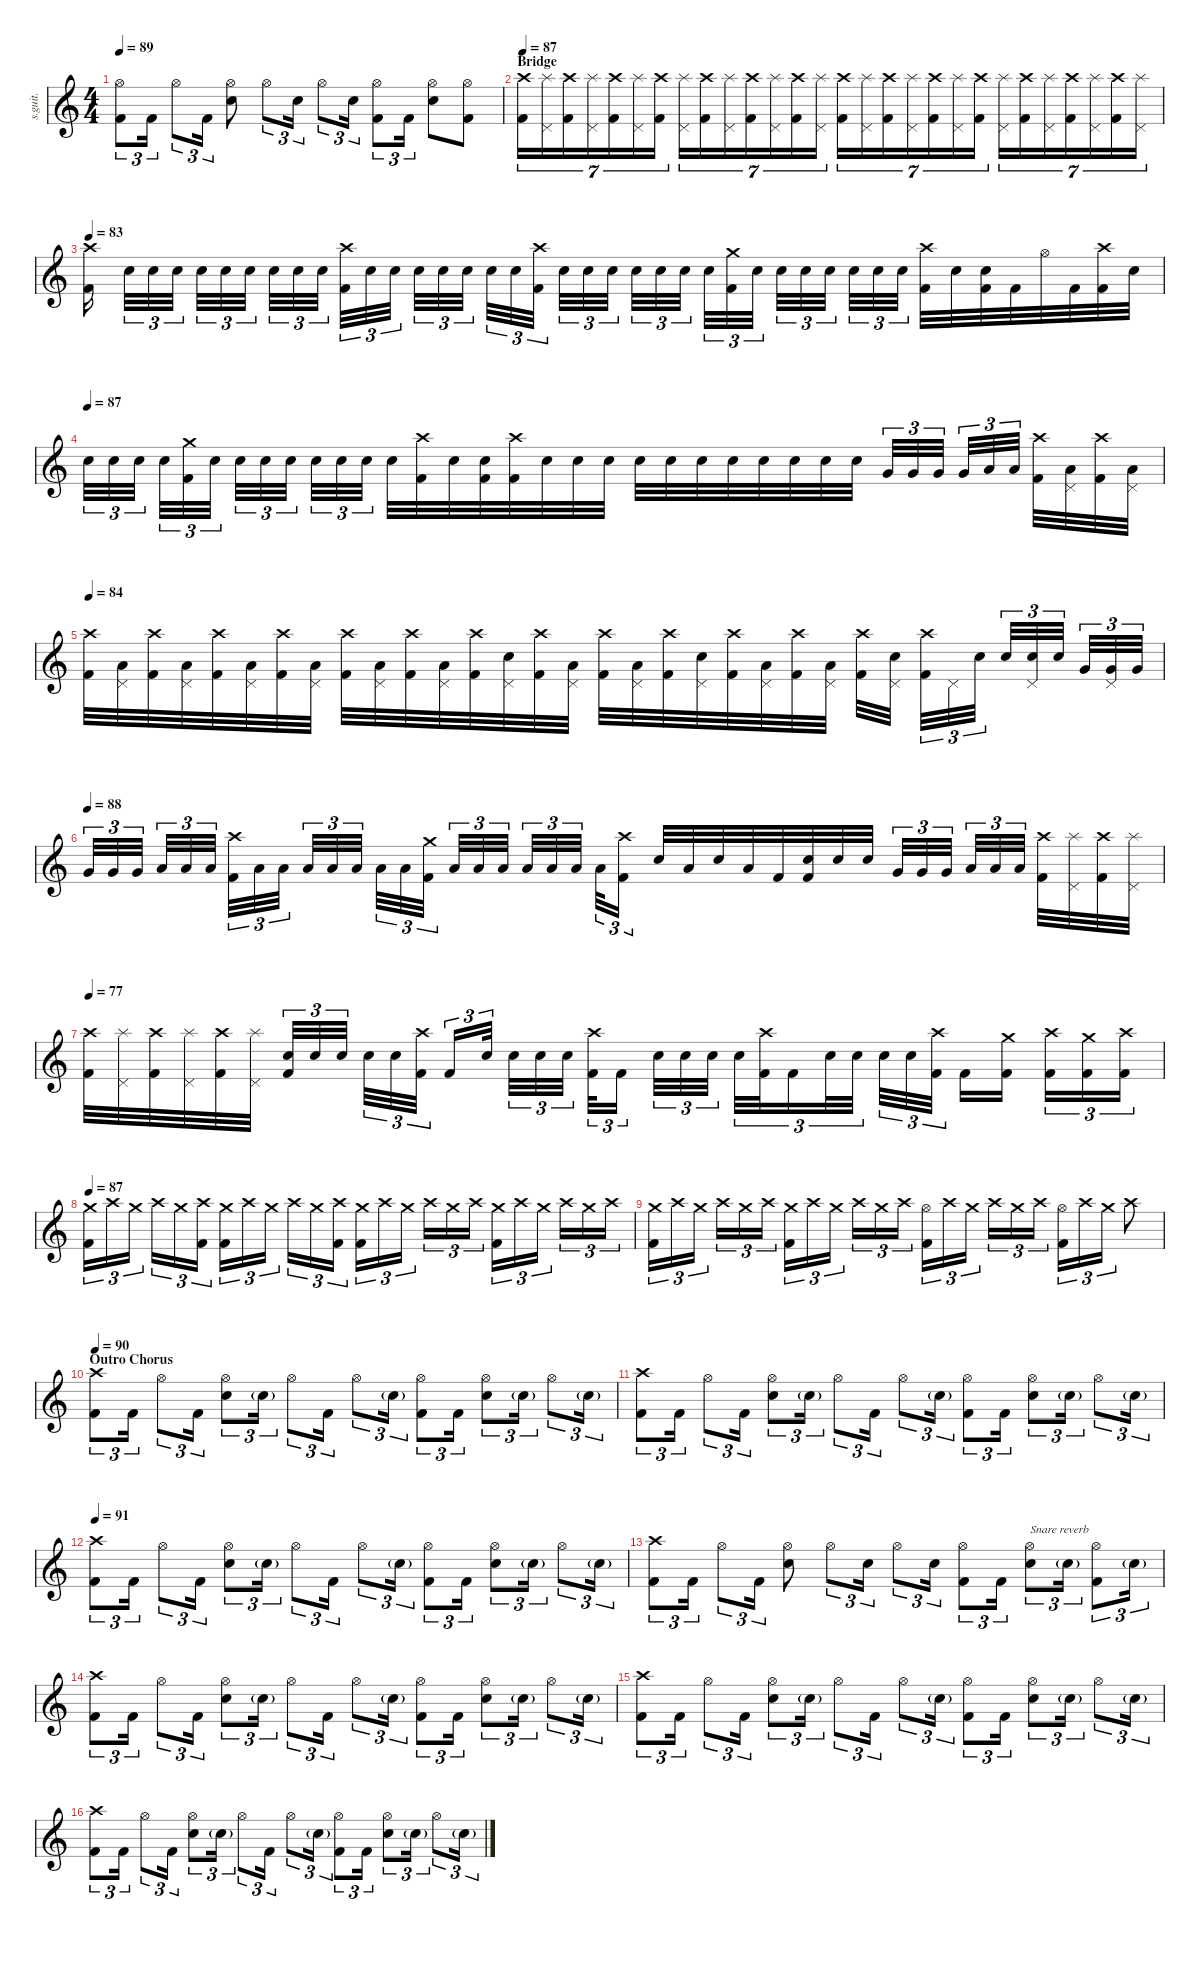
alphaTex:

\defaultSystemsLayout 4
\hideDynamics
\bracketExtendMode nobrackets
\track ("Brad Wilk - Drums" "s.guit.") {instrument percussion}
\staff {score}
\articulation defaults
\ts (4 4)
\tempo 89
\clef g2
\ks c
("Hi-Hat (open)" "Kick (hit) 2").8{tu (3 2) lyrics (0 "") lyrics (1 "") lyrics (2 "") lyrics (3 "") lyrics (4 "") dy f} "Kick (hit) 2".16{tu (3 2) lyrics (0 "") lyrics (1 "") lyrics (2 "") lyrics (3 "") lyrics (4 "")} "Hi-Hat (open)".8{tu (3 2) lyrics (0 "") lyrics (1 "") lyrics (2 "") lyrics (3 "") lyrics (4 "")} "Kick (hit) 2".16{tu (3 2) lyrics (0 "") lyrics (1 "") lyrics (2 "") lyrics (3 "") lyrics (4 "")} ("Hi-Hat (open)" "Snare (hit) 2").8{lyrics (0 "") lyrics (1 "") lyrics (2 "") lyrics (3 "") lyrics (4 "")} "Hi-Hat (open)".8{tu (3 2) lyrics (0 "") lyrics (1 "") lyrics (2 "") lyrics (3 "") lyrics (4 "")} "Snare (hit) 2".16{tu (3 2) lyrics (0 "") lyrics (1 "") lyrics (2 "") lyrics (3 "") lyrics (4 "")} "Hi-Hat (open)".8{tu (3 2) lyrics (0 "") lyrics (1 "") lyrics (2 "") lyrics (3 "") lyrics (4 "")} "Snare (hit) 2".16{tu (3 2) lyrics (0 "") lyrics (1 "") lyrics (2 "") lyrics (3 "") lyrics (4 "") dy mf} ("Hi-Hat (open)" "Kick (hit) 2").8{tu (3 2) lyrics (0 "") lyrics (1 "") lyrics (2 "") lyrics (3 "") lyrics (4 "") dy f} "Kick (hit) 2".16{tu (3 2) lyrics (0 "") lyrics (1 "") lyrics (2 "") lyrics (3 "") lyrics (4 "")} ("Hi-Hat (open)" "Snare (hit) 2").8{lyrics (0 "") lyrics (1 "") lyrics (2 "") lyrics (3 "") lyrics (4 "")} ("Hi-Hat (open)" "Kick (hit) 2").8{lyrics (0 "") lyrics (1 "") lyrics (2 "") lyrics (3 "") lyrics (4 "")} |
\section ("" "Bridge")
\tempo 87
("Crash high (hit)" "Kick (hit) 2").16{tu (7 4) lyrics (0 "") lyrics (1 "") lyrics (2 "") lyrics (3 "") lyrics (4 "")} ("Splash (hit)" "Pedal Hi-Hat (hit)").16{tu (7 4) lyrics (0 "") lyrics (1 "") lyrics (2 "") lyrics (3 "") lyrics (4 "")} ("Crash high (hit)" "Kick (hit) 2").16{tu (7 4) lyrics (0 "") lyrics (1 "") lyrics (2 "") lyrics (3 "") lyrics (4 "")} ("Splash (hit)" "Pedal Hi-Hat (hit)").16{tu (7 4) lyrics (0 "") lyrics (1 "") lyrics (2 "") lyrics (3 "") lyrics (4 "")} ("Crash high (hit)" "Kick (hit) 2").16{tu (7 4) lyrics (0 "") lyrics (1 "") lyrics (2 "") lyrics (3 "") lyrics (4 "")} ("Splash (hit)" "Pedal Hi-Hat (hit)").16{tu (7 4) lyrics (0 "") lyrics (1 "") lyrics (2 "") lyrics (3 "") lyrics (4 "")} ("Crash high (hit)" "Kick (hit) 2").16{tu (7 4) lyrics (0 "") lyrics (1 "") lyrics (2 "") lyrics (3 "") lyrics (4 "")} ("Splash (hit)" "Pedal Hi-Hat (hit)").16{tu (7 4) lyrics (0 "") lyrics (1 "") lyrics (2 "") lyrics (3 "") lyrics (4 "")} ("Crash high (hit)" "Kick (hit) 2").16{tu (7 4) lyrics (0 "") lyrics (1 "") lyrics (2 "") lyrics (3 "") lyrics (4 "")} ("Splash (hit)" "Pedal Hi-Hat (hit)").16{tu (7 4) lyrics (0 "") lyrics (1 "") lyrics (2 "") lyrics (3 "") lyrics (4 "")} ("Crash high (hit)" "Kick (hit) 2").16{tu (7 4) lyrics (0 "") lyrics (1 "") lyrics (2 "") lyrics (3 "") lyrics (4 "")} ("Splash (hit)" "Pedal Hi-Hat (hit)").16{tu (7 4) lyrics (0 "") lyrics (1 "") lyrics (2 "") lyrics (3 "") lyrics (4 "")} ("Crash high (hit)" "Kick (hit) 2").16{tu (7 4) lyrics (0 "") lyrics (1 "") lyrics (2 "") lyrics (3 "") lyrics (4 "")} ("Splash (hit)" "Pedal Hi-Hat (hit)").16{tu (7 4) lyrics (0 "") lyrics (1 "") lyrics (2 "") lyrics (3 "") lyrics (4 "")} ("Crash high (hit)" "Kick (hit) 2").16{tu (7 4) lyrics (0 "") lyrics (1 "") lyrics (2 "") lyrics (3 "") lyrics (4 "")} ("Splash (hit)" "Pedal Hi-Hat (hit)").16{tu (7 4) lyrics (0 "") lyrics (1 "") lyrics (2 "") lyrics (3 "") lyrics (4 "")} ("Crash high (hit)" "Kick (hit) 2").16{tu (7 4) lyrics (0 "") lyrics (1 "") lyrics (2 "") lyrics (3 "") lyrics (4 "")} ("Splash (hit)" "Pedal Hi-Hat (hit)").16{tu (7 4) lyrics (0 "") lyrics (1 "") lyrics (2 "") lyrics (3 "") lyrics (4 "")} ("Crash high (hit)" "Kick (hit) 2").16{tu (7 4) lyrics (0 "") lyrics (1 "") lyrics (2 "") lyrics (3 "") lyrics (4 "")} ("Splash (hit)" "Pedal Hi-Hat (hit)").16{tu (7 4) lyrics (0 "") lyrics (1 "") lyrics (2 "") lyrics (3 "") lyrics (4 "")} ("Crash high (hit)" "Kick (hit) 2").16{tu (7 4) lyrics (0 "") lyrics (1 "") lyrics (2 "") lyrics (3 "") lyrics (4 "")} ("Splash (hit)" "Pedal Hi-Hat (hit)").16{tu (7 4) lyrics (0 "") lyrics (1 "") lyrics (2 "") lyrics (3 "") lyrics (4 "")} ("Crash high (hit)" "Kick (hit) 2").16{tu (7 4) lyrics (0 "") lyrics (1 "") lyrics (2 "") lyrics (3 "") lyrics (4 "")} ("Splash (hit)" "Pedal Hi-Hat (hit)").16{tu (7 4) lyrics (0 "") lyrics (1 "") lyrics (2 "") lyrics (3 "") lyrics (4 "")} ("Crash high (hit)" "Kick (hit) 2").16{tu (7 4) lyrics (0 "") lyrics (1 "") lyrics (2 "") lyrics (3 "") lyrics (4 "")} ("Splash (hit)" "Pedal Hi-Hat (hit)").16{tu (7 4) lyrics (0 "") lyrics (1 "") lyrics (2 "") lyrics (3 "") lyrics (4 "")} ("Crash high (hit)" "Kick (hit) 2").16{tu (7 4) lyrics (0 "") lyrics (1 "") lyrics (2 "") lyrics (3 "") lyrics (4 "")} ("Splash (hit)" "Pedal Hi-Hat (hit)").16{tu (7 4) lyrics (0 "") lyrics (1 "") lyrics (2 "") lyrics (3 "") lyrics (4 "")} |
\tempo 83
("Crash high (hit)" "Kick (hit) 2").16{lyrics (0 "") lyrics (1 "") lyrics (2 "") lyrics (3 "") lyrics (4 "")} "Snare (hit) 2".32{tu (3 2) lyrics (0 "") lyrics (1 "") lyrics (2 "") lyrics (3 "") lyrics (4 "") dy mf} "Snare (hit) 2".32{tu (3 2) lyrics (0 "") lyrics (1 "") lyrics (2 "") lyrics (3 "") lyrics (4 "") dy f} "Snare (hit) 2".32{tu (3 2) lyrics (0 "") lyrics (1 "") lyrics (2 "") lyrics (3 "") lyrics (4 "")} "Snare (hit) 2".32{tu (3 2) lyrics (0 "") lyrics (1 "") lyrics (2 "") lyrics (3 "") lyrics (4 "")} "Snare (hit) 2".32{tu (3 2) lyrics (0 "") lyrics (1 "") lyrics (2 "") lyrics (3 "") lyrics (4 "")} "Snare (hit) 2".32{tu (3 2) lyrics (0 "") lyrics (1 "") lyrics (2 "") lyrics (3 "") lyrics (4 "")} "Snare (hit) 2".32{tu (3 2) lyrics (0 "") lyrics (1 "") lyrics (2 "") lyrics (3 "") lyrics (4 "")} "Snare (hit) 2".32{tu (3 2) lyrics (0 "") lyrics (1 "") lyrics (2 "") lyrics (3 "") lyrics (4 "")} "Snare (hit) 2".32{tu (3 2) lyrics (0 "") lyrics (1 "") lyrics (2 "") lyrics (3 "") lyrics (4 "") dy mf} ("Crash high (hit)" "Kick (hit) 2").32{tu (3 2) lyrics (0 "") lyrics (1 "") lyrics (2 "") lyrics (3 "") lyrics (4 "") dy f} "Snare (hit) 2".32{tu (3 2) lyrics (0 "") lyrics (1 "") lyrics (2 "") lyrics (3 "") lyrics (4 "") dy mp} "Snare (hit) 2".32{tu (3 2) lyrics (0 "") lyrics (1 "") lyrics (2 "") lyrics (3 "") lyrics (4 "")} "Snare (hit) 2".32{tu (3 2) lyrics (0 "") lyrics (1 "") lyrics (2 "") lyrics (3 "") lyrics (4 "")} "Snare (hit) 2".32{tu (3 2) lyrics (0 "") lyrics (1 "") lyrics (2 "") lyrics (3 "") lyrics (4 "") dy mf} "Snare (hit) 2".32{tu (3 2) lyrics (0 "") lyrics (1 "") lyrics (2 "") lyrics (3 "") lyrics (4 "") dy f} "Snare (hit) 2".32{tu (3 2) lyrics (0 "") lyrics (1 "") lyrics (2 "") lyrics (3 "") lyrics (4 "")} "Snare (hit) 2".32{tu (3 2) lyrics (0 "") lyrics (1 "") lyrics (2 "") lyrics (3 "") lyrics (4 "") dy mf} ("Crash high (hit)" "Kick (hit) 2").32{tu (3 2) lyrics (0 "") lyrics (1 "") lyrics (2 "") lyrics (3 "") lyrics (4 "") dy f} "Snare (hit) 2".32{tu (3 2) lyrics (0 "") lyrics (1 "") lyrics (2 "") lyrics (3 "") lyrics (4 "") dy mf} "Snare (hit) 2".32{tu (3 2) lyrics (0 "") lyrics (1 "") lyrics (2 "") lyrics (3 "") lyrics (4 "") dy f} "Snare (hit) 2".32{tu (3 2) lyrics (0 "") lyrics (1 "") lyrics (2 "") lyrics (3 "") lyrics (4 "")} "Snare (hit) 2".32{tu (3 2) lyrics (0 "") lyrics (1 "") lyrics (2 "") lyrics (3 "") lyrics (4 "")} "Snare (hit) 2".32{tu (3 2) lyrics (0 "") lyrics (1 "") lyrics (2 "") lyrics (3 "") lyrics (4 "")} "Snare (hit) 2".32{tu (3 2) lyrics (0 "") lyrics (1 "") lyrics (2 "") lyrics (3 "") lyrics (4 "")} "Snare (hit) 2".32{tu (3 2) lyrics (0 "") lyrics (1 "") lyrics (2 "") lyrics (3 "") lyrics (4 "") dy mf} ("Crash medium (hit)" "Kick (hit) 2").32{tu (3 2) lyrics (0 "") lyrics (1 "") lyrics (2 "") lyrics (3 "") lyrics (4 "") dy f} "Snare (hit) 2".32{tu (3 2) lyrics (0 "") lyrics (1 "") lyrics (2 "") lyrics (3 "") lyrics (4 "") dy mf} "Snare (hit) 2".32{tu (3 2) lyrics (0 "") lyrics (1 "") lyrics (2 "") lyrics (3 "") lyrics (4 "") dy f} "Snare (hit) 2".32{tu (3 2) lyrics (0 "") lyrics (1 "") lyrics (2 "") lyrics (3 "") lyrics (4 "")} "Snare (hit) 2".32{tu (3 2) lyrics (0 "") lyrics (1 "") lyrics (2 "") lyrics (3 "") lyrics (4 "")} "Snare (hit) 2".32{tu (3 2) lyrics (0 "") lyrics (1 "") lyrics (2 "") lyrics (3 "") lyrics (4 "")} "Snare (hit) 2".32{tu (3 2) lyrics (0 "") lyrics (1 "") lyrics (2 "") lyrics (3 "") lyrics (4 "")} "Snare (hit) 2".32{tu (3 2) lyrics (0 "") lyrics (1 "") lyrics (2 "") lyrics (3 "") lyrics (4 "") dy mf} ("Crash high (hit)" "Kick (hit) 2").32{lyrics (0 "") lyrics (1 "") lyrics (2 "") lyrics (3 "") lyrics (4 "") dy f} "Snare (hit) 2".32{lyrics (0 "") lyrics (1 "") lyrics (2 "") lyrics (3 "") lyrics (4 "") dy mp} ("Snare (hit) 2" "Kick (hit) 2").32{lyrics (0 "") lyrics (1 "") lyrics (2 "") lyrics (3 "") lyrics (4 "")} "Kick (hit) 2".32{lyrics (0 "") lyrics (1 "") lyrics (2 "") lyrics (3 "") lyrics (4 "") dy mf} "Hi-Hat (open)".32{lyrics (0 "") lyrics (1 "") lyrics (2 "") lyrics (3 "") lyrics (4 "") dy f} "Kick (hit) 2".32{lyrics (0 "") lyrics (1 "") lyrics (2 "") lyrics (3 "") lyrics (4 "")} ("Crash high (hit)" "Kick (hit) 2").32{lyrics (0 "") lyrics (1 "") lyrics (2 "") lyrics (3 "") lyrics (4 "")} "Snare (hit) 2".32{lyrics (0 "") lyrics (1 "") lyrics (2 "") lyrics (3 "") lyrics (4 "") dy mp} |
\tempo (87)
"Snare (hit) 2".32{tu (3 2) lyrics (0 "") lyrics (1 "") lyrics (2 "") lyrics (3 "") lyrics (4 "") dy mf} "Snare (hit) 2".32{tu (3 2) lyrics (0 "") lyrics (1 "") lyrics (2 "") lyrics (3 "") lyrics (4 "") dy f} "Snare (hit) 2".32{tu (3 2) lyrics (0 "") lyrics (1 "") lyrics (2 "") lyrics (3 "") lyrics (4 "")} "Snare (hit) 2".32{tu (3 2) lyrics (0 "") lyrics (1 "") lyrics (2 "") lyrics (3 "") lyrics (4 "") dy mf} ("Crash medium (hit)" "Kick (hit) 2").32{tu (3 2) lyrics (0 "") lyrics (1 "") lyrics (2 "") lyrics (3 "") lyrics (4 "") dy f} "Snare (hit) 2".32{tu (3 2) lyrics (0 "") lyrics (1 "") lyrics (2 "") lyrics (3 "") lyrics (4 "") dy mf} "Snare (hit) 2".32{tu (3 2) lyrics (0 "") lyrics (1 "") lyrics (2 "") lyrics (3 "") lyrics (4 "") dy f} "Snare (hit) 2".32{tu (3 2) lyrics (0 "") lyrics (1 "") lyrics (2 "") lyrics (3 "") lyrics (4 "")} "Snare (hit) 2".32{tu (3 2) lyrics (0 "") lyrics (1 "") lyrics (2 "") lyrics (3 "") lyrics (4 "")} "Snare (hit) 2".32{tu (3 2) lyrics (0 "") lyrics (1 "") lyrics (2 "") lyrics (3 "") lyrics (4 "")} "Snare (hit) 2".32{tu (3 2) lyrics (0 "") lyrics (1 "") lyrics (2 "") lyrics (3 "") lyrics (4 "")} "Snare (hit) 2".32{tu (3 2) lyrics (0 "") lyrics (1 "") lyrics (2 "") lyrics (3 "") lyrics (4 "")} "Snare (hit) 2".32{lyrics (0 "") lyrics (1 "") lyrics (2 "") lyrics (3 "") lyrics (4 "") dy mf} ("Crash high (hit)" "Kick (hit) 2").32{lyrics (0 "") lyrics (1 "") lyrics (2 "") lyrics (3 "") lyrics (4 "") dy f} "Snare (hit) 2".32{lyrics (0 "") lyrics (1 "") lyrics (2 "") lyrics (3 "") lyrics (4 "") dy mp} ("Snare (hit) 2" "Kick (hit) 2").32{lyrics (0 "") lyrics (1 "") lyrics (2 "") lyrics (3 "") lyrics (4 "")} ("Crash high (hit)" "Kick (hit) 2").32{lyrics (0 "") lyrics (1 "") lyrics (2 "") lyrics (3 "") lyrics (4 "") dy f} "Snare (hit) 2".32{lyrics (0 "") lyrics (1 "") lyrics (2 "") lyrics (3 "") lyrics (4 "") dy mp} "Snare (hit) 2".32{lyrics (0 "") lyrics (1 "") lyrics (2 "") lyrics (3 "") lyrics (4 "")} "Snare (hit) 2".32{lyrics (0 "") lyrics (1 "") lyrics (2 "") lyrics (3 "") lyrics (4 "")} "Snare (hit) 2".32{lyrics (0 "") lyrics (1 "") lyrics (2 "") lyrics (3 "") lyrics (4 "") dy f} "Snare (hit) 2".32{lyrics (0 "") lyrics (1 "") lyrics (2 "") lyrics (3 "") lyrics (4 "") dy mf} "Snare (hit) 2".32{lyrics (0 "") lyrics (1 "") lyrics (2 "") lyrics (3 "") lyrics (4 "") dy mp} "Snare (hit) 2".32{lyrics (0 "") lyrics (1 "") lyrics (2 "") lyrics (3 "") lyrics (4 "")} "Snare (hit) 2".32{lyrics (0 "") lyrics (1 "") lyrics (2 "") lyrics (3 "") lyrics (4 "") dy f} "Snare (hit) 2".32{lyrics (0 "") lyrics (1 "") lyrics (2 "") lyrics (3 "") lyrics (4 "") dy mf} "Snare (hit) 2".32{lyrics (0 "") lyrics (1 "") lyrics (2 "") lyrics (3 "") lyrics (4 "") dy mp} "Snare (hit) 2".32{lyrics (0 "") lyrics (1 "") lyrics (2 "") lyrics (3 "") lyrics (4 "")} "Very Low Tom (hit)".32{tu (3 2) lyrics (0 "") lyrics (1 "") lyrics (2 "") lyrics (3 "") lyrics (4 "") dy mf} "Very Low Tom (hit)".32{tu (3 2) lyrics (0 "") lyrics (1 "") lyrics (2 "") lyrics (3 "") lyrics (4 "") dy f} "Very Low Tom (hit)".32{tu (3 2) lyrics (0 "") lyrics (1 "") lyrics (2 "") lyrics (3 "") lyrics (4 "")} "Very Low Tom (hit)".32{tu (3 2) lyrics (0 "") lyrics (1 "") lyrics (2 "") lyrics (3 "") lyrics (4 "") dy mf} "Low Floor Tom (hit)".32{tu (3 2) lyrics (0 "") lyrics (1 "") lyrics (2 "") lyrics (3 "") lyrics (4 "") dy f} "Low Floor Tom (hit)".32{tu (3 2) lyrics (0 "") lyrics (1 "") lyrics (2 "") lyrics (3 "") lyrics (4 "") dy mf} ("Crash high (hit)" "Kick (hit) 2").32{lyrics (0 "") lyrics (1 "") lyrics (2 "") lyrics (3 "") lyrics (4 "") dy f} ("Low Floor Tom (hit)" "Pedal Hi-Hat (hit)").32{lyrics (0 "") lyrics (1 "") lyrics (2 "") lyrics (3 "") lyrics (4 "")} ("Crash high (hit)" "Kick (hit) 2").32{lyrics (0 "") lyrics (1 "") lyrics (2 "") lyrics (3 "") lyrics (4 "")} ("Low Floor Tom (hit)" "Pedal Hi-Hat (hit)").32{lyrics (0 "") lyrics (1 "") lyrics (2 "") lyrics (3 "") lyrics (4 "")} |
\tempo 84
("Crash high (hit)" "Kick (hit) 2").32{lyrics (0 "") lyrics (1 "") lyrics (2 "") lyrics (3 "") lyrics (4 "")} ("Low Floor Tom (hit)" "Pedal Hi-Hat (hit)").32{lyrics (0 "") lyrics (1 "") lyrics (2 "") lyrics (3 "") lyrics (4 "")} ("Crash high (hit)" "Kick (hit) 2").32{lyrics (0 "") lyrics (1 "") lyrics (2 "") lyrics (3 "") lyrics (4 "")} ("Low Floor Tom (hit)" "Pedal Hi-Hat (hit)").32{lyrics (0 "") lyrics (1 "") lyrics (2 "") lyrics (3 "") lyrics (4 "")} ("Crash high (hit)" "Kick (hit) 2").32{lyrics (0 "") lyrics (1 "") lyrics (2 "") lyrics (3 "") lyrics (4 "")} ("Low Floor Tom (hit)" "Pedal Hi-Hat (hit)").32{lyrics (0 "") lyrics (1 "") lyrics (2 "") lyrics (3 "") lyrics (4 "")} ("Crash high (hit)" "Kick (hit) 2").32{lyrics (0 "") lyrics (1 "") lyrics (2 "") lyrics (3 "") lyrics (4 "")} ("Low Floor Tom (hit)" "Pedal Hi-Hat (hit)").32{lyrics (0 "") lyrics (1 "") lyrics (2 "") lyrics (3 "") lyrics (4 "")} ("Crash high (hit)" "Kick (hit) 2").32{lyrics (0 "") lyrics (1 "") lyrics (2 "") lyrics (3 "") lyrics (4 "")} ("Low Floor Tom (hit)" "Pedal Hi-Hat (hit)").32{lyrics (0 "") lyrics (1 "") lyrics (2 "") lyrics (3 "") lyrics (4 "")} ("Crash high (hit)" "Kick (hit) 2").32{lyrics (0 "") lyrics (1 "") lyrics (2 "") lyrics (3 "") lyrics (4 "")} ("Low Floor Tom (hit)" "Pedal Hi-Hat (hit)").32{lyrics (0 "") lyrics (1 "") lyrics (2 "") lyrics (3 "") lyrics (4 "")} ("Crash high (hit)" "Kick (hit) 2").32{lyrics (0 "") lyrics (1 "") lyrics (2 "") lyrics (3 "") lyrics (4 "")} ("Snare (hit) 2" "Pedal Hi-Hat (hit)").32{lyrics (0 "") lyrics (1 "") lyrics (2 "") lyrics (3 "") lyrics (4 "")} ("Crash high (hit)" "Kick (hit) 2").32{lyrics (0 "") lyrics (1 "") lyrics (2 "") lyrics (3 "") lyrics (4 "")} ("Low Floor Tom (hit)" "Pedal Hi-Hat (hit)").32{lyrics (0 "") lyrics (1 "") lyrics (2 "") lyrics (3 "") lyrics (4 "")} ("Crash high (hit)" "Kick (hit) 2").32{lyrics (0 "") lyrics (1 "") lyrics (2 "") lyrics (3 "") lyrics (4 "")} ("Low Floor Tom (hit)" "Pedal Hi-Hat (hit)").32{lyrics (0 "") lyrics (1 "") lyrics (2 "") lyrics (3 "") lyrics (4 "")} ("Crash high (hit)" "Kick (hit) 2").32{lyrics (0 "") lyrics (1 "") lyrics (2 "") lyrics (3 "") lyrics (4 "")} ("Snare (hit) 2" "Pedal Hi-Hat (hit)").32{lyrics (0 "") lyrics (1 "") lyrics (2 "") lyrics (3 "") lyrics (4 "")} ("Crash high (hit)" "Kick (hit) 2").32{lyrics (0 "") lyrics (1 "") lyrics (2 "") lyrics (3 "") lyrics (4 "")} ("Low Floor Tom (hit)" "Pedal Hi-Hat (hit)").32{lyrics (0 "") lyrics (1 "") lyrics (2 "") lyrics (3 "") lyrics (4 "")} ("Crash high (hit)" "Kick (hit) 2").32{lyrics (0 "") lyrics (1 "") lyrics (2 "") lyrics (3 "") lyrics (4 "")} ("Low Floor Tom (hit)" "Pedal Hi-Hat (hit)").32{lyrics (0 "") lyrics (1 "") lyrics (2 "") lyrics (3 "") lyrics (4 "")} ("Crash high (hit)" "Kick (hit) 2").32{lyrics (0 "") lyrics (1 "") lyrics (2 "") lyrics (3 "") lyrics (4 "")} ("Snare (hit) 2" "Pedal Hi-Hat (hit)").32{lyrics (0 "") lyrics (1 "") lyrics (2 "") lyrics (3 "") lyrics (4 "")} ("Crash high (hit)" "Kick (hit) 2").32{tu (3 2) lyrics (0 "") lyrics (1 "") lyrics (2 "") lyrics (3 "") lyrics (4 "")} "Pedal Hi-Hat (hit)".32{tu (3 2) lyrics (0 "") lyrics (1 "") lyrics (2 "") lyrics (3 "") lyrics (4 "")} "Snare (hit) 2".32{tu (3 2) lyrics (0 "") lyrics (1 "") lyrics (2 "") lyrics (3 "") lyrics (4 "")} "Snare (hit) 2".32{tu (3 2) lyrics (0 "") lyrics (1 "") lyrics (2 "") lyrics (3 "") lyrics (4 "")} ("Snare (hit) 2" "Pedal Hi-Hat (hit)").32{tu (3 2) lyrics (0 "") lyrics (1 "") lyrics (2 "") lyrics (3 "") lyrics (4 "")} "Snare (hit) 2".32{tu (3 2) lyrics (0 "") lyrics (1 "") lyrics (2 "") lyrics (3 "") lyrics (4 "") dy mf} "Very Low Tom (hit)".32{tu (3 2) lyrics (0 "") lyrics (1 "") lyrics (2 "") lyrics (3 "") lyrics (4 "") dy f} ("Very Low Tom (hit)" "Pedal Hi-Hat (hit)").32{tu (3 2) lyrics (0 "") lyrics (1 "") lyrics (2 "") lyrics (3 "") lyrics (4 "")} "Very Low Tom (hit)".32{tu (3 2) lyrics (0 "") lyrics (1 "") lyrics (2 "") lyrics (3 "") lyrics (4 "")} |
\tempo (88)
"Very Low Tom (hit)".32{tu (3 2) lyrics (0 "") lyrics (1 "") lyrics (2 "") lyrics (3 "") lyrics (4 "")} "Very Low Tom (hit)".32{tu (3 2) lyrics (0 "") lyrics (1 "") lyrics (2 "") lyrics (3 "") lyrics (4 "")} "Very Low Tom (hit)".32{tu (3 2) lyrics (0 "") lyrics (1 "") lyrics (2 "") lyrics (3 "") lyrics (4 "") dy mf} "Low Floor Tom (hit)".32{tu (3 2) lyrics (0 "") lyrics (1 "") lyrics (2 "") lyrics (3 "") lyrics (4 "") dy f} "Low Floor Tom (hit)".32{tu (3 2) lyrics (0 "") lyrics (1 "") lyrics (2 "") lyrics (3 "") lyrics (4 "")} "Low Floor Tom (hit)".32{tu (3 2) lyrics (0 "") lyrics (1 "") lyrics (2 "") lyrics (3 "") lyrics (4 "") dy mf} ("Crash high (hit)" "Kick (hit) 2").32{tu (3 2) lyrics (0 "") lyrics (1 "") lyrics (2 "") lyrics (3 "") lyrics (4 "") dy f} "Low Floor Tom (hit)".32{tu (3 2) lyrics (0 "") lyrics (1 "") lyrics (2 "") lyrics (3 "") lyrics (4 "") dy mp} "Low Floor Tom (hit)".32{tu (3 2) lyrics (0 "") lyrics (1 "") lyrics (2 "") lyrics (3 "") lyrics (4 "") dy mf} "Low Floor Tom (hit)".32{tu (3 2) lyrics (0 "") lyrics (1 "") lyrics (2 "") lyrics (3 "") lyrics (4 "") dy f} "Low Floor Tom (hit)".32{tu (3 2) lyrics (0 "") lyrics (1 "") lyrics (2 "") lyrics (3 "") lyrics (4 "")} "Low Floor Tom (hit)".32{tu (3 2) lyrics (0 "") lyrics (1 "") lyrics (2 "") lyrics (3 "") lyrics (4 "")} "Low Floor Tom (hit)".32{tu (3 2) lyrics (0 "") lyrics (1 "") lyrics (2 "") lyrics (3 "") lyrics (4 "")} "Low Floor Tom (hit)".32{tu (3 2) lyrics (0 "") lyrics (1 "") lyrics (2 "") lyrics (3 "") lyrics (4 "") dy mf} ("Crash medium (hit)" "Kick (hit) 2").32{tu (3 2) lyrics (0 "") lyrics (1 "") lyrics (2 "") lyrics (3 "") lyrics (4 "") dy f} "Low Floor Tom (hit)".32{tu (3 2) lyrics (0 "") lyrics (1 "") lyrics (2 "") lyrics (3 "") lyrics (4 "") dy mp} "Low Floor Tom (hit)".32{tu (3 2) lyrics (0 "") lyrics (1 "") lyrics (2 "") lyrics (3 "") lyrics (4 "") dy mf} "Low Floor Tom (hit)".32{tu (3 2) lyrics (0 "") lyrics (1 "") lyrics (2 "") lyrics (3 "") lyrics (4 "") dy f} "Low Floor Tom (hit)".32{tu (3 2) lyrics (0 "") lyrics (1 "") lyrics (2 "") lyrics (3 "") lyrics (4 "")} "Low Floor Tom (hit)".32{tu (3 2) lyrics (0 "") lyrics (1 "") lyrics (2 "") lyrics (3 "") lyrics (4 "")} "Low Floor Tom (hit)".32{tu (3 2) lyrics (0 "") lyrics (1 "") lyrics (2 "") lyrics (3 "") lyrics (4 "")} "Low Floor Tom (hit)".32{tu (3 2) lyrics (0 "") lyrics (1 "") lyrics (2 "") lyrics (3 "") lyrics (4 "") dy mf} ("Crash high (hit)" "Kick (hit) 2").16{tu (3 2) lyrics (0 "") lyrics (1 "") lyrics (2 "") lyrics (3 "") lyrics (4 "") dy f} "Snare (hit) 2".32{lyrics (0 "") lyrics (1 "") lyrics (2 "") lyrics (3 "") lyrics (4 "") dy mp} "Low Floor Tom (hit)".32{lyrics (0 "") lyrics (1 "") lyrics (2 "") lyrics (3 "") lyrics (4 "") dy f} "Snare (hit) 2".32{lyrics (0 "") lyrics (1 "") lyrics (2 "") lyrics (3 "") lyrics (4 "") dy mp} "Low Floor Tom (hit)".32{lyrics (0 "") lyrics (1 "") lyrics (2 "") lyrics (3 "") lyrics (4 "") dy f} "Kick (hit) 2".32{lyrics (0 "") lyrics (1 "") lyrics (2 "") lyrics (3 "") lyrics (4 "")} ("Snare (hit) 2" "Kick (hit) 2").32{lyrics (0 "") lyrics (1 "") lyrics (2 "") lyrics (3 "") lyrics (4 "")} "Snare (hit) 2".32{lyrics (0 "") lyrics (1 "") lyrics (2 "") lyrics (3 "") lyrics (4 "")} "Snare (hit) 2".32{lyrics (0 "") lyrics (1 "") lyrics (2 "") lyrics (3 "") lyrics (4 "") dy mp} "Very Low Tom (hit)".32{tu (3 2) lyrics (0 "") lyrics (1 "") lyrics (2 "") lyrics (3 "") lyrics (4 "") dy f} "Very Low Tom (hit)".32{tu (3 2) lyrics (0 "") lyrics (1 "") lyrics (2 "") lyrics (3 "") lyrics (4 "")} "Very Low Tom (hit)".32{tu (3 2) lyrics (0 "") lyrics (1 "") lyrics (2 "") lyrics (3 "") lyrics (4 "") dy mf} "Low Floor Tom (hit)".32{tu (3 2) lyrics (0 "") lyrics (1 "") lyrics (2 "") lyrics (3 "") lyrics (4 "") dy f} "Low Floor Tom (hit)".32{tu (3 2) lyrics (0 "") lyrics (1 "") lyrics (2 "") lyrics (3 "") lyrics (4 "")} "Low Floor Tom (hit)".32{tu (3 2) lyrics (0 "") lyrics (1 "") lyrics (2 "") lyrics (3 "") lyrics (4 "") dy mf} ("Crash high (hit)" "Kick (hit) 2").32{lyrics (0 "") lyrics (1 "") lyrics (2 "") lyrics (3 "") lyrics (4 "") dy f} ("Splash (hit)" "Pedal Hi-Hat (hit)").32{lyrics (0 "") lyrics (1 "") lyrics (2 "") lyrics (3 "") lyrics (4 "")} ("Crash high (hit)" "Kick (hit) 2").32{lyrics (0 "") lyrics (1 "") lyrics (2 "") lyrics (3 "") lyrics (4 "")} ("Splash (hit)" "Pedal Hi-Hat (hit)").32{lyrics (0 "") lyrics (1 "") lyrics (2 "") lyrics (3 "") lyrics (4 "")} |
\tempo 77
("Crash high (hit)" "Kick (hit) 2").32{lyrics (0 "") lyrics (1 "") lyrics (2 "") lyrics (3 "") lyrics (4 "")} ("Splash (hit)" "Pedal Hi-Hat (hit)").32{lyrics (0 "") lyrics (1 "") lyrics (2 "") lyrics (3 "") lyrics (4 "")} ("Crash high (hit)" "Kick (hit) 2").32{lyrics (0 "") lyrics (1 "") lyrics (2 "") lyrics (3 "") lyrics (4 "")} ("Splash (hit)" "Pedal Hi-Hat (hit)").32{lyrics (0 "") lyrics (1 "") lyrics (2 "") lyrics (3 "") lyrics (4 "")} ("Crash high (hit)" "Kick (hit) 2").32{lyrics (0 "") lyrics (1 "") lyrics (2 "") lyrics (3 "") lyrics (4 "")} ("Splash (hit)" "Pedal Hi-Hat (hit)").32{lyrics (0 "") lyrics (1 "") lyrics (2 "") lyrics (3 "") lyrics (4 "")} ("Snare (hit) 2" "Kick (hit) 2").32{tu (3 2) lyrics (0 "") lyrics (1 "") lyrics (2 "") lyrics (3 "") lyrics (4 "")} "Snare (hit) 2".32{tu (3 2) lyrics (0 "") lyrics (1 "") lyrics (2 "") lyrics (3 "") lyrics (4 "")} "Snare (hit) 2".32{tu (3 2) lyrics (0 "") lyrics (1 "") lyrics (2 "") lyrics (3 "") lyrics (4 "")} "Snare (hit) 2".32{tu (3 2) lyrics (0 "") lyrics (1 "") lyrics (2 "") lyrics (3 "") lyrics (4 "")} "Snare (hit) 2".32{tu (3 2) lyrics (0 "") lyrics (1 "") lyrics (2 "") lyrics (3 "") lyrics (4 "") dy mf} ("Crash high (hit)" "Kick (hit) 2").32{tu (3 2) lyrics (0 "") lyrics (1 "") lyrics (2 "") lyrics (3 "") lyrics (4 "") dy f} "Kick (hit) 2".16{tu (3 2) lyrics (0 "") lyrics (1 "") lyrics (2 "") lyrics (3 "") lyrics (4 "") dy mf} "Snare (hit) 2".32{tu (3 2) lyrics (0 "") lyrics (1 "") lyrics (2 "") lyrics (3 "") lyrics (4 "") dy f} "Snare (hit) 2".32{tu (3 2) lyrics (0 "") lyrics (1 "") lyrics (2 "") lyrics (3 "") lyrics (4 "")} "Snare (hit) 2".32{tu (3 2) lyrics (0 "") lyrics (1 "") lyrics (2 "") lyrics (3 "") lyrics (4 "")} "Snare (hit) 2".32{tu (3 2) lyrics (0 "") lyrics (1 "") lyrics (2 "") lyrics (3 "") lyrics (4 "") dy mf} ("Crash high (hit)" "Kick (hit) 2").32{tu (3 2) lyrics (0 "") lyrics (1 "") lyrics (2 "") lyrics (3 "") lyrics (4 "") dy f} "Kick (hit) 2".16{tu (3 2) lyrics (0 "") lyrics (1 "") lyrics (2 "") lyrics (3 "") lyrics (4 "") dy mf} "Snare (hit) 2".32{tu (3 2) lyrics (0 "") lyrics (1 "") lyrics (2 "") lyrics (3 "") lyrics (4 "") dy f} "Snare (hit) 2".32{tu (3 2) lyrics (0 "") lyrics (1 "") lyrics (2 "") lyrics (3 "") lyrics (4 "")} "Snare (hit) 2".32{tu (3 2) lyrics (0 "") lyrics (1 "") lyrics (2 "") lyrics (3 "") lyrics (4 "")} "Snare (hit) 2".32{tu (3 2) lyrics (0 "") lyrics (1 "") lyrics (2 "") lyrics (3 "") lyrics (4 "") dy mf} ("Crash high (hit)" "Kick (hit) 2").32{tu (3 2) lyrics (0 "") lyrics (1 "") lyrics (2 "") lyrics (3 "") lyrics (4 "") dy f} "Kick (hit) 2".16{tu (3 2) lyrics (0 "") lyrics (1 "") lyrics (2 "") lyrics (3 "") lyrics (4 "") dy mf} "Snare (hit) 2".32{tu (3 2) lyrics (0 "") lyrics (1 "") lyrics (2 "") lyrics (3 "") lyrics (4 "") dy f} "Snare (hit) 2".32{tu (3 2) lyrics (0 "") lyrics (1 "") lyrics (2 "") lyrics (3 "") lyrics (4 "")} "Snare (hit) 2".32{tu (3 2) lyrics (0 "") lyrics (1 "") lyrics (2 "") lyrics (3 "") lyrics (4 "")} "Snare (hit) 2".32{tu (3 2) lyrics (0 "") lyrics (1 "") lyrics (2 "") lyrics (3 "") lyrics (4 "") dy mf} ("Crash high (hit)" "Kick (hit) 2").32{tu (3 2) lyrics (0 "") lyrics (1 "") lyrics (2 "") lyrics (3 "") lyrics (4 "") dy f} "Kick (hit) 2".16{lyrics (0 "") lyrics (1 "") lyrics (2 "") lyrics (3 "") lyrics (4 "") dy mf} ("Crash medium (hit)" "Kick (hit) 2").16{lyrics (0 "") lyrics (1 "") lyrics (2 "") lyrics (3 "") lyrics (4 "") dy f} ("Crash high (hit)" "Kick (hit) 2").16{tu (3 2) lyrics (0 "") lyrics (1 "") lyrics (2 "") lyrics (3 "") lyrics (4 "")} ("Crash medium (hit)" "Kick (hit) 2").16{tu (3 2) lyrics (0 "") lyrics (1 "") lyrics (2 "") lyrics (3 "") lyrics (4 "")} ("Crash high (hit)" "Kick (hit) 2").16{tu (3 2) lyrics (0 "") lyrics (1 "") lyrics (2 "") lyrics (3 "") lyrics (4 "")} |
\tempo 87
("Crash medium (hit)" "Kick (hit) 2").16{tu (3 2) lyrics (0 "") lyrics (1 "") lyrics (2 "") lyrics (3 "") lyrics (4 "")} "Crash high (hit)".16{tu (3 2) lyrics (0 "") lyrics (1 "") lyrics (2 "") lyrics (3 "") lyrics (4 "") dy mp} "Crash medium (hit)".16{tu (3 2) lyrics (0 "") lyrics (1 "") lyrics (2 "") lyrics (3 "") lyrics (4 "")} "Crash high (hit)".16{tu (3 2) lyrics (0 "") lyrics (1 "") lyrics (2 "") lyrics (3 "") lyrics (4 "")} "Crash medium (hit)".16{tu (3 2) lyrics (0 "") lyrics (1 "") lyrics (2 "") lyrics (3 "") lyrics (4 "")} ("Crash high (hit)" "Kick (hit) 2").16{tu (3 2) lyrics (0 "") lyrics (1 "") lyrics (2 "") lyrics (3 "") lyrics (4 "")} ("Crash medium (hit)" "Kick (hit) 2").16{tu (3 2) lyrics (0 "") lyrics (1 "") lyrics (2 "") lyrics (3 "") lyrics (4 "")} "Crash high (hit)".16{tu (3 2) lyrics (0 "") lyrics (1 "") lyrics (2 "") lyrics (3 "") lyrics (4 "")} "Crash medium (hit)".16{tu (3 2) lyrics (0 "") lyrics (1 "") lyrics (2 "") lyrics (3 "") lyrics (4 "")} "Crash high (hit)".16{tu (3 2) lyrics (0 "") lyrics (1 "") lyrics (2 "") lyrics (3 "") lyrics (4 "")} "Crash medium (hit)".16{tu (3 2) lyrics (0 "") lyrics (1 "") lyrics (2 "") lyrics (3 "") lyrics (4 "")} ("Crash high (hit)" "Kick (hit) 2").16{tu (3 2) lyrics (0 "") lyrics (1 "") lyrics (2 "") lyrics (3 "") lyrics (4 "")} ("Crash medium (hit)" "Kick (hit) 2").16{tu (3 2) lyrics (0 "") lyrics (1 "") lyrics (2 "") lyrics (3 "") lyrics (4 "")} "Crash high (hit)".16{tu (3 2) lyrics (0 "") lyrics (1 "") lyrics (2 "") lyrics (3 "") lyrics (4 "")} "Crash medium (hit)".16{tu (3 2) lyrics (0 "") lyrics (1 "") lyrics (2 "") lyrics (3 "") lyrics (4 "")} "Crash high (hit)".16{tu (3 2) lyrics (0 "") lyrics (1 "") lyrics (2 "") lyrics (3 "") lyrics (4 "")} "Crash medium (hit)".16{tu (3 2) lyrics (0 "") lyrics (1 "") lyrics (2 "") lyrics (3 "") lyrics (4 "")} "Crash high (hit)".16{tu (3 2) lyrics (0 "") lyrics (1 "") lyrics (2 "") lyrics (3 "") lyrics (4 "")} ("Crash medium (hit)" "Kick (hit) 2").16{tu (3 2) lyrics (0 "") lyrics (1 "") lyrics (2 "") lyrics (3 "") lyrics (4 "")} "Crash high (hit)".16{tu (3 2) lyrics (0 "") lyrics (1 "") lyrics (2 "") lyrics (3 "") lyrics (4 "")} "Crash medium (hit)".16{tu (3 2) lyrics (0 "") lyrics (1 "") lyrics (2 "") lyrics (3 "") lyrics (4 "")} "Crash high (hit)".16{tu (3 2) lyrics (0 "") lyrics (1 "") lyrics (2 "") lyrics (3 "") lyrics (4 "")} "Crash medium (hit)".16{tu (3 2) lyrics (0 "") lyrics (1 "") lyrics (2 "") lyrics (3 "") lyrics (4 "")} "Crash high (hit)".16{tu (3 2) lyrics (0 "") lyrics (1 "") lyrics (2 "") lyrics (3 "") lyrics (4 "")} |
("Crash medium (hit)" "Kick (hit) 2").16{tu (3 2) lyrics (0 "") lyrics (1 "") lyrics (2 "") lyrics (3 "") lyrics (4 "")} "Crash high (hit)".16{tu (3 2) lyrics (0 "") lyrics (1 "") lyrics (2 "") lyrics (3 "") lyrics (4 "")} "Crash medium (hit)".16{tu (3 2) lyrics (0 "") lyrics (1 "") lyrics (2 "") lyrics (3 "") lyrics (4 "")} "Crash high (hit)".16{tu (3 2) lyrics (0 "") lyrics (1 "") lyrics (2 "") lyrics (3 "") lyrics (4 "")} "Crash medium (hit)".16{tu (3 2) lyrics (0 "") lyrics (1 "") lyrics (2 "") lyrics (3 "") lyrics (4 "")} "Crash high (hit)".16{tu (3 2) lyrics (0 "") lyrics (1 "") lyrics (2 "") lyrics (3 "") lyrics (4 "")} ("Crash medium (hit)" "Kick (hit) 2").16{tu (3 2) lyrics (0 "") lyrics (1 "") lyrics (2 "") lyrics (3 "") lyrics (4 "")} "Crash high (hit)".16{tu (3 2) lyrics (0 "") lyrics (1 "") lyrics (2 "") lyrics (3 "") lyrics (4 "")} "Crash medium (hit)".16{tu (3 2) lyrics (0 "") lyrics (1 "") lyrics (2 "") lyrics (3 "") lyrics (4 "")} "Crash high (hit)".16{tu (3 2) lyrics (0 "") lyrics (1 "") lyrics (2 "") lyrics (3 "") lyrics (4 "")} "Crash medium (hit)".16{tu (3 2) lyrics (0 "") lyrics (1 "") lyrics (2 "") lyrics (3 "") lyrics (4 "")} "Crash high (hit)".16{tu (3 2) lyrics (0 "") lyrics (1 "") lyrics (2 "") lyrics (3 "") lyrics (4 "")} ("Hi-Hat (open)" "Kick (hit) 2").16{tu (3 2) lyrics (0 "") lyrics (1 "") lyrics (2 "") lyrics (3 "") lyrics (4 "") dy f} "Crash high (hit)".16{tu (3 2) lyrics (0 "") lyrics (1 "") lyrics (2 "") lyrics (3 "") lyrics (4 "") dy mp} "Crash medium (hit)".16{tu (3 2) lyrics (0 "") lyrics (1 "") lyrics (2 "") lyrics (3 "") lyrics (4 "")} "Crash high (hit)".16{tu (3 2) lyrics (0 "") lyrics (1 "") lyrics (2 "") lyrics (3 "") lyrics (4 "")} "Crash medium (hit)".16{tu (3 2) lyrics (0 "") lyrics (1 "") lyrics (2 "") lyrics (3 "") lyrics (4 "")} "Crash high (hit)".16{tu (3 2) lyrics (0 "") lyrics (1 "") lyrics (2 "") lyrics (3 "") lyrics (4 "")} ("Hi-Hat (open)" "Kick (hit) 2").16{tu (3 2) lyrics (0 "") lyrics (1 "") lyrics (2 "") lyrics (3 "") lyrics (4 "") dy f} "Crash high (hit)".16{tu (3 2) lyrics (0 "") lyrics (1 "") lyrics (2 "") lyrics (3 "") lyrics (4 "") dy mp} "Crash medium (hit)".16{tu (3 2) lyrics (0 "") lyrics (1 "") lyrics (2 "") lyrics (3 "") lyrics (4 "") dy mf} "Crash high (hit)".8{lyrics (0 "") lyrics (1 "") lyrics (2 "") lyrics (3 "") lyrics (4 "") dy f} |
\section ("" "Outro Chorus")
\tempo 90
("Crash high (hit)" "Kick (hit) 2").8{tu (3 2) lyrics (0 "") lyrics (1 "") lyrics (2 "") lyrics (3 "") lyrics (4 "")} "Kick (hit) 2".16{tu (3 2) lyrics (0 "") lyrics (1 "") lyrics (2 "") lyrics (3 "") lyrics (4 "")} "Hi-Hat (open)".8{tu (3 2) lyrics (0 "") lyrics (1 "") lyrics (2 "") lyrics (3 "") lyrics (4 "")} "Kick (hit) 2".16{tu (3 2) lyrics (0 "") lyrics (1 "") lyrics (2 "") lyrics (3 "") lyrics (4 "")} ("Hi-Hat (open)" "Snare (hit) 2").8{tu (3 2) lyrics (0 "") lyrics (1 "") lyrics (2 "") lyrics (3 "") lyrics (4 "")} "Snare (hit) 2"{g}.16{tu (3 2) lyrics (0 "") lyrics (1 "") lyrics (2 "") lyrics (3 "") lyrics (4 "") dy mp} "Hi-Hat (open)".8{tu (3 2) lyrics (0 "") lyrics (1 "") lyrics (2 "") lyrics (3 "") lyrics (4 "") dy f} "Kick (hit) 2".16{tu (3 2) lyrics (0 "") lyrics (1 "") lyrics (2 "") lyrics (3 "") lyrics (4 "")} "Hi-Hat (open)".8{tu (3 2) lyrics (0 "") lyrics (1 "") lyrics (2 "") lyrics (3 "") lyrics (4 "")} "Snare (hit) 2"{g}.16{tu (3 2) lyrics (0 "") lyrics (1 "") lyrics (2 "") lyrics (3 "") lyrics (4 "") dy mp} ("Hi-Hat (open)" "Kick (hit) 2").8{tu (3 2) lyrics (0 "") lyrics (1 "") lyrics (2 "") lyrics (3 "") lyrics (4 "") dy f} "Kick (hit) 2".16{tu (3 2) lyrics (0 "") lyrics (1 "") lyrics (2 "") lyrics (3 "") lyrics (4 "")} ("Hi-Hat (open)" "Snare (hit) 2").8{tu (3 2) lyrics (0 "") lyrics (1 "") lyrics (2 "") lyrics (3 "") lyrics (4 "")} "Snare (hit) 2"{g}.16{tu (3 2) lyrics (0 "") lyrics (1 "") lyrics (2 "") lyrics (3 "") lyrics (4 "") dy mp} "Hi-Hat (open)".8{tu (3 2) lyrics (0 "") lyrics (1 "") lyrics (2 "") lyrics (3 "") lyrics (4 "") dy f} "Snare (hit) 2"{g}.16{tu (3 2) lyrics (0 "") lyrics (1 "") lyrics (2 "") lyrics (3 "") lyrics (4 "") dy mp} |
("Crash high (hit)" "Kick (hit) 2").8{tu (3 2) lyrics (0 "") lyrics (1 "") lyrics (2 "") lyrics (3 "") lyrics (4 "") dy f} "Kick (hit) 2".16{tu (3 2) lyrics (0 "") lyrics (1 "") lyrics (2 "") lyrics (3 "") lyrics (4 "")} "Hi-Hat (open)".8{tu (3 2) lyrics (0 "") lyrics (1 "") lyrics (2 "") lyrics (3 "") lyrics (4 "")} "Kick (hit) 2".16{tu (3 2) lyrics (0 "") lyrics (1 "") lyrics (2 "") lyrics (3 "") lyrics (4 "")} ("Hi-Hat (open)" "Snare (hit) 2").8{tu (3 2) lyrics (0 "") lyrics (1 "") lyrics (2 "") lyrics (3 "") lyrics (4 "")} "Snare (hit) 2"{g}.16{tu (3 2) lyrics (0 "") lyrics (1 "") lyrics (2 "") lyrics (3 "") lyrics (4 "") dy mp} "Hi-Hat (open)".8{tu (3 2) lyrics (0 "") lyrics (1 "") lyrics (2 "") lyrics (3 "") lyrics (4 "") dy f} "Kick (hit) 2".16{tu (3 2) lyrics (0 "") lyrics (1 "") lyrics (2 "") lyrics (3 "") lyrics (4 "")} "Hi-Hat (open)".8{tu (3 2) lyrics (0 "") lyrics (1 "") lyrics (2 "") lyrics (3 "") lyrics (4 "")} "Snare (hit) 2"{g}.16{tu (3 2) lyrics (0 "") lyrics (1 "") lyrics (2 "") lyrics (3 "") lyrics (4 "") dy mp} ("Hi-Hat (open)" "Kick (hit) 2").8{tu (3 2) lyrics (0 "") lyrics (1 "") lyrics (2 "") lyrics (3 "") lyrics (4 "") dy f} "Kick (hit) 2".16{tu (3 2) lyrics (0 "") lyrics (1 "") lyrics (2 "") lyrics (3 "") lyrics (4 "")} ("Hi-Hat (open)" "Snare (hit) 2").8{tu (3 2) lyrics (0 "") lyrics (1 "") lyrics (2 "") lyrics (3 "") lyrics (4 "")} "Snare (hit) 2"{g}.16{tu (3 2) lyrics (0 "") lyrics (1 "") lyrics (2 "") lyrics (3 "") lyrics (4 "") dy mp} "Hi-Hat (open)".8{tu (3 2) lyrics (0 "") lyrics (1 "") lyrics (2 "") lyrics (3 "") lyrics (4 "") dy f} "Snare (hit) 2"{g}.16{tu (3 2) lyrics (0 "") lyrics (1 "") lyrics (2 "") lyrics (3 "") lyrics (4 "") dy mp} |
\tempo 91
("Crash high (hit)" "Kick (hit) 2").8{tu (3 2) lyrics (0 "") lyrics (1 "") lyrics (2 "") lyrics (3 "") lyrics (4 "") dy f} "Kick (hit) 2".16{tu (3 2) lyrics (0 "") lyrics (1 "") lyrics (2 "") lyrics (3 "") lyrics (4 "")} "Hi-Hat (open)".8{tu (3 2) lyrics (0 "") lyrics (1 "") lyrics (2 "") lyrics (3 "") lyrics (4 "")} "Kick (hit) 2".16{tu (3 2) lyrics (0 "") lyrics (1 "") lyrics (2 "") lyrics (3 "") lyrics (4 "")} ("Hi-Hat (open)" "Snare (hit) 2").8{tu (3 2) lyrics (0 "") lyrics (1 "") lyrics (2 "") lyrics (3 "") lyrics (4 "")} "Snare (hit) 2"{g}.16{tu (3 2) lyrics (0 "") lyrics (1 "") lyrics (2 "") lyrics (3 "") lyrics (4 "") dy mp} "Hi-Hat (open)".8{tu (3 2) lyrics (0 "") lyrics (1 "") lyrics (2 "") lyrics (3 "") lyrics (4 "") dy f} "Kick (hit) 2".16{tu (3 2) lyrics (0 "") lyrics (1 "") lyrics (2 "") lyrics (3 "") lyrics (4 "")} "Hi-Hat (open)".8{tu (3 2) lyrics (0 "") lyrics (1 "") lyrics (2 "") lyrics (3 "") lyrics (4 "")} "Snare (hit) 2"{g}.16{tu (3 2) lyrics (0 "") lyrics (1 "") lyrics (2 "") lyrics (3 "") lyrics (4 "") dy mp} ("Hi-Hat (open)" "Kick (hit) 2").8{tu (3 2) lyrics (0 "") lyrics (1 "") lyrics (2 "") lyrics (3 "") lyrics (4 "") dy f} "Kick (hit) 2".16{tu (3 2) lyrics (0 "") lyrics (1 "") lyrics (2 "") lyrics (3 "") lyrics (4 "")} ("Hi-Hat (open)" "Snare (hit) 2").8{tu (3 2) lyrics (0 "") lyrics (1 "") lyrics (2 "") lyrics (3 "") lyrics (4 "")} "Snare (hit) 2"{g}.16{tu (3 2) lyrics (0 "") lyrics (1 "") lyrics (2 "") lyrics (3 "") lyrics (4 "") dy mp} "Hi-Hat (open)".8{tu (3 2) lyrics (0 "") lyrics (1 "") lyrics (2 "") lyrics (3 "") lyrics (4 "") dy f} "Snare (hit) 2"{g}.16{tu (3 2) lyrics (0 "") lyrics (1 "") lyrics (2 "") lyrics (3 "") lyrics (4 "") dy mp} |
("Crash high (hit)" "Kick (hit) 2").8{tu (3 2) lyrics (0 "") lyrics (1 "") lyrics (2 "") lyrics (3 "") lyrics (4 "") dy f} "Kick (hit) 2".16{tu (3 2) lyrics (0 "") lyrics (1 "") lyrics (2 "") lyrics (3 "") lyrics (4 "")} "Hi-Hat (open)".8{tu (3 2) lyrics (0 "") lyrics (1 "") lyrics (2 "") lyrics (3 "") lyrics (4 "")} "Kick (hit) 2".16{tu (3 2) lyrics (0 "") lyrics (1 "") lyrics (2 "") lyrics (3 "") lyrics (4 "")} ("Hi-Hat (open)" "Snare (hit) 2").8{lyrics (0 "") lyrics (1 "") lyrics (2 "") lyrics (3 "") lyrics (4 "")} "Hi-Hat (open)".8{tu (3 2) lyrics (0 "") lyrics (1 "") lyrics (2 "") lyrics (3 "") lyrics (4 "")} "Snare (hit) 2".16{tu (3 2) lyrics (0 "") lyrics (1 "") lyrics (2 "") lyrics (3 "") lyrics (4 "")} "Hi-Hat (open)".8{tu (3 2) lyrics (0 "") lyrics (1 "") lyrics (2 "") lyrics (3 "") lyrics (4 "")} "Snare (hit) 2".16{tu (3 2) lyrics (0 "") lyrics (1 "") lyrics (2 "") lyrics (3 "") lyrics (4 "") dy mf} ("Hi-Hat (open)" "Kick (hit) 2").8{tu (3 2) lyrics (0 "") lyrics (1 "") lyrics (2 "") lyrics (3 "") lyrics (4 "") dy f} "Kick (hit) 2".16{tu (3 2) lyrics (0 "") lyrics (1 "") lyrics (2 "") lyrics (3 "") lyrics (4 "")} ("Hi-Hat (open)" "Snare (hit) 2").8{tu (3 2) txt "Snare reverb" lyrics (0 "") lyrics (1 "") lyrics (2 "") lyrics (3 "") lyrics (4 "")} "Snare (hit) 2"{g}.16{tu (3 2) lyrics (0 "") lyrics (1 "") lyrics (2 "") lyrics (3 "") lyrics (4 "") dy mp} ("Hi-Hat (open)" "Kick (hit) 2").8{tu (3 2) lyrics (0 "") lyrics (1 "") lyrics (2 "") lyrics (3 "") lyrics (4 "") dy f} "Snare (hit) 2"{g}.16{tu (3 2) lyrics (0 "") lyrics (1 "") lyrics (2 "") lyrics (3 "") lyrics (4 "") dy mp} |
("Crash high (hit)" "Kick (hit) 2").8{tu (3 2) lyrics (0 "") lyrics (1 "") lyrics (2 "") lyrics (3 "") lyrics (4 "") dy f} "Kick (hit) 2".16{tu (3 2) lyrics (0 "") lyrics (1 "") lyrics (2 "") lyrics (3 "") lyrics (4 "")} "Hi-Hat (open)".8{tu (3 2) lyrics (0 "") lyrics (1 "") lyrics (2 "") lyrics (3 "") lyrics (4 "")} "Kick (hit) 2".16{tu (3 2) lyrics (0 "") lyrics (1 "") lyrics (2 "") lyrics (3 "") lyrics (4 "")} ("Hi-Hat (open)" "Snare (hit) 2").8{tu (3 2) lyrics (0 "") lyrics (1 "") lyrics (2 "") lyrics (3 "") lyrics (4 "")} "Snare (hit) 2"{g}.16{tu (3 2) lyrics (0 "") lyrics (1 "") lyrics (2 "") lyrics (3 "") lyrics (4 "") dy mp} "Hi-Hat (open)".8{tu (3 2) lyrics (0 "") lyrics (1 "") lyrics (2 "") lyrics (3 "") lyrics (4 "") dy f} "Kick (hit) 2".16{tu (3 2) lyrics (0 "") lyrics (1 "") lyrics (2 "") lyrics (3 "") lyrics (4 "")} "Hi-Hat (open)".8{tu (3 2) lyrics (0 "") lyrics (1 "") lyrics (2 "") lyrics (3 "") lyrics (4 "")} "Snare (hit) 2"{g}.16{tu (3 2) lyrics (0 "") lyrics (1 "") lyrics (2 "") lyrics (3 "") lyrics (4 "") dy mp} ("Hi-Hat (open)" "Kick (hit) 2").8{tu (3 2) lyrics (0 "") lyrics (1 "") lyrics (2 "") lyrics (3 "") lyrics (4 "") dy f} "Kick (hit) 2".16{tu (3 2) lyrics (0 "") lyrics (1 "") lyrics (2 "") lyrics (3 "") lyrics (4 "")} ("Hi-Hat (open)" "Snare (hit) 2").8{tu (3 2) lyrics (0 "") lyrics (1 "") lyrics (2 "") lyrics (3 "") lyrics (4 "")} "Snare (hit) 2"{g}.16{tu (3 2) lyrics (0 "") lyrics (1 "") lyrics (2 "") lyrics (3 "") lyrics (4 "") dy mp} "Hi-Hat (open)".8{tu (3 2) lyrics (0 "") lyrics (1 "") lyrics (2 "") lyrics (3 "") lyrics (4 "") dy f} "Snare (hit) 2"{g}.16{tu (3 2) lyrics (0 "") lyrics (1 "") lyrics (2 "") lyrics (3 "") lyrics (4 "") dy mp} |
("Crash high (hit)" "Kick (hit) 2").8{tu (3 2) lyrics (0 "") lyrics (1 "") lyrics (2 "") lyrics (3 "") lyrics (4 "") dy f} "Kick (hit) 2".16{tu (3 2) lyrics (0 "") lyrics (1 "") lyrics (2 "") lyrics (3 "") lyrics (4 "")} "Hi-Hat (open)".8{tu (3 2) lyrics (0 "") lyrics (1 "") lyrics (2 "") lyrics (3 "") lyrics (4 "")} "Kick (hit) 2".16{tu (3 2) lyrics (0 "") lyrics (1 "") lyrics (2 "") lyrics (3 "") lyrics (4 "")} ("Hi-Hat (open)" "Snare (hit) 2").8{tu (3 2) lyrics (0 "") lyrics (1 "") lyrics (2 "") lyrics (3 "") lyrics (4 "")} "Snare (hit) 2"{g}.16{tu (3 2) lyrics (0 "") lyrics (1 "") lyrics (2 "") lyrics (3 "") lyrics (4 "") dy mp} "Hi-Hat (open)".8{tu (3 2) lyrics (0 "") lyrics (1 "") lyrics (2 "") lyrics (3 "") lyrics (4 "") dy f} "Kick (hit) 2".16{tu (3 2) lyrics (0 "") lyrics (1 "") lyrics (2 "") lyrics (3 "") lyrics (4 "")} "Hi-Hat (open)".8{tu (3 2) lyrics (0 "") lyrics (1 "") lyrics (2 "") lyrics (3 "") lyrics (4 "")} "Snare (hit) 2"{g}.16{tu (3 2) lyrics (0 "") lyrics (1 "") lyrics (2 "") lyrics (3 "") lyrics (4 "") dy mp} ("Hi-Hat (open)" "Kick (hit) 2").8{tu (3 2) lyrics (0 "") lyrics (1 "") lyrics (2 "") lyrics (3 "") lyrics (4 "") dy f} "Kick (hit) 2".16{tu (3 2) lyrics (0 "") lyrics (1 "") lyrics (2 "") lyrics (3 "") lyrics (4 "")} ("Hi-Hat (open)" "Snare (hit) 2").8{tu (3 2) lyrics (0 "") lyrics (1 "") lyrics (2 "") lyrics (3 "") lyrics (4 "")} "Snare (hit) 2"{g}.16{tu (3 2) lyrics (0 "") lyrics (1 "") lyrics (2 "") lyrics (3 "") lyrics (4 "") dy mp} "Hi-Hat (open)".8{tu (3 2) lyrics (0 "") lyrics (1 "") lyrics (2 "") lyrics (3 "") lyrics (4 "") dy f} "Snare (hit) 2"{g}.16{tu (3 2) lyrics (0 "") lyrics (1 "") lyrics (2 "") lyrics (3 "") lyrics (4 "") dy mp} |
("Crash high (hit)" "Kick (hit) 2").8{tu (3 2) lyrics (0 "") lyrics (1 "") lyrics (2 "") lyrics (3 "") lyrics (4 "") dy f} "Kick (hit) 2".16{tu (3 2) lyrics (0 "") lyrics (1 "") lyrics (2 "") lyrics (3 "") lyrics (4 "")} "Hi-Hat (open)".8{tu (3 2) lyrics (0 "") lyrics (1 "") lyrics (2 "") lyrics (3 "") lyrics (4 "")} "Kick (hit) 2".16{tu (3 2) lyrics (0 "") lyrics (1 "") lyrics (2 "") lyrics (3 "") lyrics (4 "")} ("Hi-Hat (open)" "Snare (hit) 2").8{tu (3 2) lyrics (0 "") lyrics (1 "") lyrics (2 "") lyrics (3 "") lyrics (4 "")} "Snare (hit) 2"{g}.16{tu (3 2) lyrics (0 "") lyrics (1 "") lyrics (2 "") lyrics (3 "") lyrics (4 "") dy mp} "Hi-Hat (open)".8{tu (3 2) lyrics (0 "") lyrics (1 "") lyrics (2 "") lyrics (3 "") lyrics (4 "") dy f} "Kick (hit) 2".16{tu (3 2) lyrics (0 "") lyrics (1 "") lyrics (2 "") lyrics (3 "") lyrics (4 "")} "Hi-Hat (open)".8{tu (3 2) lyrics (0 "") lyrics (1 "") lyrics (2 "") lyrics (3 "") lyrics (4 "")} "Snare (hit) 2"{g}.16{tu (3 2) lyrics (0 "") lyrics (1 "") lyrics (2 "") lyrics (3 "") lyrics (4 "") dy mp} ("Hi-Hat (open)" "Kick (hit) 2").8{tu (3 2) lyrics (0 "") lyrics (1 "") lyrics (2 "") lyrics (3 "") lyrics (4 "") dy f} "Kick (hit) 2".16{tu (3 2) lyrics (0 "") lyrics (1 "") lyrics (2 "") lyrics (3 "") lyrics (4 "")} ("Hi-Hat (open)" "Snare (hit) 2").8{tu (3 2) lyrics (0 "") lyrics (1 "") lyrics (2 "") lyrics (3 "") lyrics (4 "")} "Snare (hit) 2"{g}.16{tu (3 2) lyrics (0 "") lyrics (1 "") lyrics (2 "") lyrics (3 "") lyrics (4 "") dy mp} "Hi-Hat (open)".8{tu (3 2) lyrics (0 "") lyrics (1 "") lyrics (2 "") lyrics (3 "") lyrics (4 "") dy f} "Snare (hit) 2"{g}.16{tu (3 2) lyrics (0 "") lyrics (1 "") lyrics (2 "") lyrics (3 "") lyrics (4 "") dy mp}
